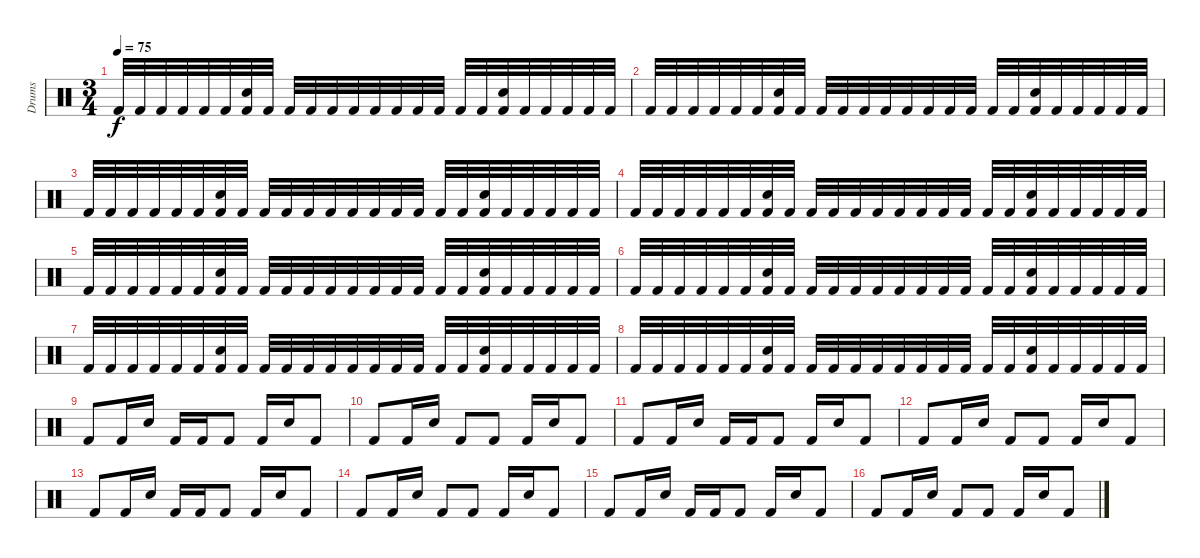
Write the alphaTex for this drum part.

\track ("Drums" "Drums") {instrument percussion}
\staff {score}
\articulation defaults
\ts (3 4)
\tempo 75
\clef neutral
\ks c "Kick (hit) 2".32{dy f} "Kick (hit) 2".32 "Kick (hit) 2".32 "Kick (hit) 2".32 "Kick (hit) 2".32 "Kick (hit) 2".32
("Snare (hit) 2" "Kick (hit) 2").32 "Kick (hit) 2".32 "Kick (hit) 2".32 "Kick (hit) 2".32 "Kick (hit) 2".32 "Kick (hit) 2".32 "Kick (hit) 2".32 "Kick (hit) 2".32 "Kick (hit) 2".32 "Kick (hit) 2".32 "Kick (hit) 2".32 "Kick (hit) 2".32 ("Snare (hit) 2" "Kick (hit) 2").32 "Kick (hit) 2".32 "Kick (hit) 2".32 "Kick (hit) 2".32 "Kick (hit) 2".32 "Kick (hit) 2".32 |
"Kick (hit) 2".32 "Kick (hit) 2".32 "Kick (hit) 2".32 "Kick (hit) 2".32 "Kick (hit) 2".32 "Kick (hit) 2".32 ("Snare (hit) 2" "Kick (hit) 2").32 "Kick (hit) 2".32 "Kick (hit) 2".32 "Kick (hit) 2".32 "Kick (hit) 2".32 "Kick (hit) 2".32 "Kick (hit) 2".32 "Kick (hit) 2".32 "Kick (hit) 2".32 "Kick (hit) 2".32 "Kick (hit) 2".32 "Kick (hit) 2".32 ("Snare (hit) 2" "Kick (hit) 2").32 "Kick (hit) 2".32 "Kick (hit) 2".32 "Kick (hit) 2".32 "Kick (hit) 2".32 "Kick (hit) 2".32 |
"Kick (hit) 2".32 "Kick (hit) 2".32 "Kick (hit) 2".32 "Kick (hit) 2".32 "Kick (hit) 2".32 "Kick (hit) 2".32 ("Snare (hit) 2" "Kick (hit) 2").32 "Kick (hit) 2".32 "Kick (hit) 2".32 "Kick (hit) 2".32 "Kick (hit) 2".32 "Kick (hit) 2".32 "Kick (hit) 2".32 "Kick (hit) 2".32 "Kick (hit) 2".32 "Kick (hit) 2".32 "Kick (hit) 2".32 "Kick (hit) 2".32 ("Snare (hit) 2" "Kick (hit) 2").32 "Kick (hit) 2".32 "Kick (hit) 2".32 "Kick (hit) 2".32 "Kick (hit) 2".32 "Kick (hit) 2".32 |
"Kick (hit) 2".32 "Kick (hit) 2".32 "Kick (hit) 2".32 "Kick (hit) 2".32 "Kick (hit) 2".32 "Kick (hit) 2".32 ("Snare (hit) 2" "Kick (hit) 2").32 "Kick (hit) 2".32 "Kick (hit) 2".32 "Kick (hit) 2".32 "Kick (hit) 2".32 "Kick (hit) 2".32 "Kick (hit) 2".32 "Kick (hit) 2".32 "Kick (hit) 2".32 "Kick (hit) 2".32 "Kick (hit) 2".32 "Kick (hit) 2".32 ("Snare (hit) 2" "Kick (hit) 2").32 "Kick (hit) 2".32 "Kick (hit) 2".32 "Kick (hit) 2".32 "Kick (hit) 2".32 "Kick (hit) 2".32 |
"Kick (hit) 2".32 "Kick (hit) 2".32 "Kick (hit) 2".32 "Kick (hit) 2".32 "Kick (hit) 2".32 "Kick (hit) 2".32 ("Snare (hit) 2" "Kick (hit) 2").32 "Kick (hit) 2".32 "Kick (hit) 2".32 "Kick (hit) 2".32 "Kick (hit) 2".32 "Kick (hit) 2".32 "Kick (hit) 2".32 "Kick (hit) 2".32 "Kick (hit) 2".32 "Kick (hit) 2".32 "Kick (hit) 2".32 "Kick (hit) 2".32 ("Snare (hit) 2" "Kick (hit) 2").32 "Kick (hit) 2".32 "Kick (hit) 2".32 "Kick (hit) 2".32 "Kick (hit) 2".32 "Kick (hit) 2".32 |
"Kick (hit) 2".32 "Kick (hit) 2".32 "Kick (hit) 2".32 "Kick (hit) 2".32 "Kick (hit) 2".32 "Kick (hit) 2".32 ("Snare (hit) 2" "Kick (hit) 2").32 "Kick (hit) 2".32 "Kick (hit) 2".32 "Kick (hit) 2".32 "Kick (hit) 2".32 "Kick (hit) 2".32 "Kick (hit) 2".32 "Kick (hit) 2".32 "Kick (hit) 2".32 "Kick (hit) 2".32 "Kick (hit) 2".32 "Kick (hit) 2".32 ("Snare (hit) 2" "Kick (hit) 2").32 "Kick (hit) 2".32 "Kick (hit) 2".32 "Kick (hit) 2".32 "Kick (hit) 2".32 "Kick (hit) 2".32 |
"Kick (hit) 2".32 "Kick (hit) 2".32 "Kick (hit) 2".32 "Kick (hit) 2".32 "Kick (hit) 2".32 "Kick (hit) 2".32 ("Snare (hit) 2" "Kick (hit) 2").32 "Kick (hit) 2".32 "Kick (hit) 2".32 "Kick (hit) 2".32 "Kick (hit) 2".32 "Kick (hit) 2".32 "Kick (hit) 2".32 "Kick (hit) 2".32 "Kick (hit) 2".32 "Kick (hit) 2".32 "Kick (hit) 2".32 "Kick (hit) 2".32 ("Snare (hit) 2" "Kick (hit) 2").32 "Kick (hit) 2".32 "Kick (hit) 2".32 "Kick (hit) 2".32 "Kick (hit) 2".32 "Kick (hit) 2".32 |
"Kick (hit) 2".32 "Kick (hit) 2".32 "Kick (hit) 2".32 "Kick (hit) 2".32 "Kick (hit) 2".32 "Kick (hit) 2".32 ("Snare (hit) 2" "Kick (hit) 2").32 "Kick (hit) 2".32 "Kick (hit) 2".32 "Kick (hit) 2".32 "Kick (hit) 2".32 "Kick (hit) 2".32 "Kick (hit) 2".32 "Kick (hit) 2".32 "Kick (hit) 2".32 "Kick (hit) 2".32 "Kick (hit) 2".32 "Kick (hit) 2".32 ("Snare (hit) 2" "Kick (hit) 2").32 "Kick (hit) 2".32 "Kick (hit) 2".32 "Kick (hit) 2".32 "Kick (hit) 2".32 "Kick (hit) 2".32 |
"Kick (hit) 2".8 "Kick (hit) 2".16 "Snare (hit) 2".16 "Kick (hit) 2".16 "Kick (hit) 2".16 "Kick (hit) 2".8 "Kick (hit) 2".16 "Snare (hit) 2".16 "Kick (hit) 2".8 |
"Kick (hit) 2".8 "Kick (hit) 2".16 "Snare (hit) 2".16 "Kick (hit) 2".8 "Kick (hit) 2".8 "Kick (hit) 2".16 "Snare (hit) 2".16 "Kick (hit) 2".8 |
"Kick (hit) 2".8 "Kick (hit) 2".16 "Snare (hit) 2".16 "Kick (hit) 2".16 "Kick (hit) 2".16 "Kick (hit) 2".8 "Kick (hit) 2".16 "Snare (hit) 2".16 "Kick (hit) 2".8 |
"Kick (hit) 2".8 "Kick (hit) 2".16 "Snare (hit) 2".16 "Kick (hit) 2".8 "Kick (hit) 2".8 "Kick (hit) 2".16 "Snare (hit) 2".16 "Kick (hit) 2".8 |
"Kick (hit) 2".8 "Kick (hit) 2".16 "Snare (hit) 2".16 "Kick (hit) 2".16 "Kick (hit) 2".16 "Kick (hit) 2".8 "Kick (hit) 2".16 "Snare (hit) 2".16 "Kick (hit) 2".8 |
"Kick (hit) 2".8 "Kick (hit) 2".16 "Snare (hit) 2".16 "Kick (hit) 2".8 "Kick (hit) 2".8 "Kick (hit) 2".16 "Snare (hit) 2".16 "Kick (hit) 2".8 |
"Kick (hit) 2".8 "Kick (hit) 2".16 "Snare (hit) 2".16 "Kick (hit) 2".16 "Kick (hit) 2".16 "Kick (hit) 2".8 "Kick (hit) 2".16 "Snare (hit) 2".16 "Kick (hit) 2".8 |
"Kick (hit) 2".8 "Kick (hit) 2".16 "Snare (hit) 2".16 "Kick (hit) 2".8 "Kick (hit) 2".8 "Kick (hit) 2".16 "Snare (hit) 2".16 "Kick (hit) 2".8
